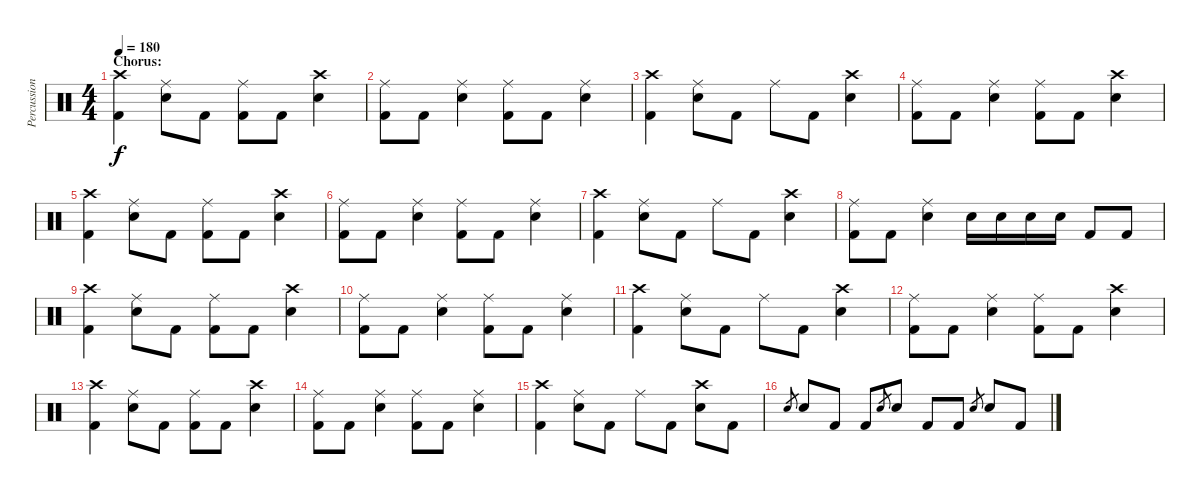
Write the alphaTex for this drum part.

\track ("Percussion" "Percussion") {instrument percussion}
\staff {score}
\articulation defaults
\ts (4 4)
\section ("" "Chorus:")
\tempo 180
\clef neutral
\ks c
("Crash high (hit)" "Kick (hit) 2").4{dy f} ("Ride (middle)" "Snare (hit) 2").8 "Kick (hit) 2".8 ("Ride (middle)" "Kick (hit) 2").8 "Kick (hit) 2".8 ("Crash high (hit)" "Snare (hit) 2").4 |
("Ride (middle)" "Kick (hit) 2").8 "Kick (hit) 2".8 ("Ride (middle)" "Snare (hit) 2").4 ("Ride (middle)" "Kick (hit) 2").8 "Kick (hit) 2".8 ("Ride (middle)" "Snare (hit) 2").4 |
("Crash high (hit)" "Kick (hit) 2").4 ("Ride (middle)" "Snare (hit) 2").8 "Kick (hit) 2".8 "Ride (middle)".8 "Kick (hit) 2".8 ("Crash high (hit)" "Snare (hit) 2").4 |
("Ride (middle)" "Kick (hit) 2").8 "Kick (hit) 2".8 ("Ride (middle)" "Snare (hit) 2").4 ("Ride (middle)" "Kick (hit) 2").8 "Kick (hit) 2".8 ("Crash high (hit)" "Snare (hit) 2").4 |
("Crash high (hit)" "Kick (hit) 2").4 ("Ride (middle)" "Snare (hit) 2").8 "Kick (hit) 2".8 ("Ride (middle)" "Kick (hit) 2").8 "Kick (hit) 2".8 ("Crash high (hit)" "Snare (hit) 2").4 |
("Ride (middle)" "Kick (hit) 2").8 "Kick (hit) 2".8 ("Ride (middle)" "Snare (hit) 2").4 ("Ride (middle)" "Kick (hit) 2").8 "Kick (hit) 2".8 ("Ride (middle)" "Snare (hit) 2").4 |
("Crash high (hit)" "Kick (hit) 2").4 ("Ride (middle)" "Snare (hit) 2").8 "Kick (hit) 2".8 "Ride (middle)".8 "Kick (hit) 2".8 ("Crash high (hit)" "Snare (hit) 2").4 |
("Ride (middle)" "Kick (hit) 2").8 "Kick (hit) 2".8 ("Ride (middle)" "Snare (hit) 2").4 "Snare (hit) 2".16 "Snare (hit) 2".16 "Snare (hit) 2".16 "Snare (hit) 2".16 "Kick (hit) 2".8 "Kick (hit) 2".8 |
("Crash high (hit)" "Kick (hit) 2").4 ("Ride (middle)" "Snare (hit) 2").8 "Kick (hit) 2".8 ("Ride (middle)" "Kick (hit) 2").8 "Kick (hit) 2".8 ("Crash high (hit)" "Snare (hit) 2").4 |
("Ride (middle)" "Kick (hit) 2").8 "Kick (hit) 2".8 ("Ride (middle)" "Snare (hit) 2").4 ("Ride (middle)" "Kick (hit) 2").8 "Kick (hit) 2".8 ("Ride (middle)" "Snare (hit) 2").4 |
("Crash high (hit)" "Kick (hit) 2").4 ("Ride (middle)" "Snare (hit) 2").8 "Kick (hit) 2".8 "Ride (middle)".8 "Kick (hit) 2".8 ("Crash high (hit)" "Snare (hit) 2").4 |
("Ride (middle)" "Kick (hit) 2").8 "Kick (hit) 2".8 ("Ride (middle)" "Snare (hit) 2").4 ("Ride (middle)" "Kick (hit) 2").8 "Kick (hit) 2".8 ("Crash high (hit)" "Snare (hit) 2").4 |
("Crash high (hit)" "Kick (hit) 2").4 ("Ride (middle)" "Snare (hit) 2").8 "Kick (hit) 2".8 ("Ride (middle)" "Kick (hit) 2").8 "Kick (hit) 2".8 ("Crash high (hit)" "Snare (hit) 2").4 |
("Ride (middle)" "Kick (hit) 2").8 "Kick (hit) 2".8 ("Ride (middle)" "Snare (hit) 2").4 ("Ride (middle)" "Kick (hit) 2").8 "Kick (hit) 2".8 ("Ride (middle)" "Snare (hit) 2").4 |
("Crash high (hit)" "Kick (hit) 2").4 ("Ride (middle)" "Snare (hit) 2").8 "Kick (hit) 2".8 "Ride (middle)".8 "Kick (hit) 2".8 ("Crash high (hit)" "Snare (hit) 2").8 "Kick (hit) 2".8 |
"Snare (hit) 2".8{gr} "Snare (hit) 2".8 "Kick (hit) 2".8 "Kick (hit) 2".8 "Snare (hit) 2".8{gr} "Snare (hit) 2".8 "Kick (hit) 2".8 "Kick (hit) 2".8 "Snare (hit) 2".8{gr} "Snare (hit) 2".8 "Kick (hit) 2".8
